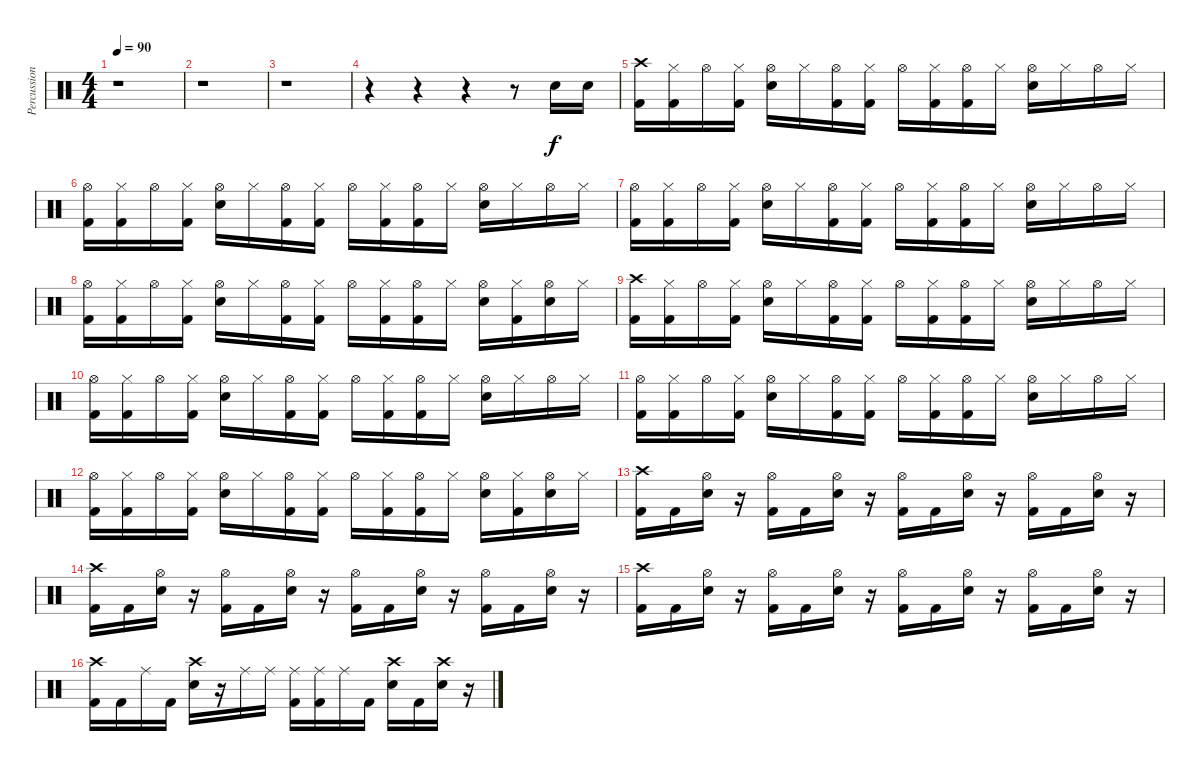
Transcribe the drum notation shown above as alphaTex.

\track ("Percussion" "Percussion") {instrument percussion}
\staff {score}
\articulation defaults
\ts (4 4)
\tempo 90
\clef neutral
\ks c
r.1{dy f} |
r.1 |
r.1 |
r.4 r.4 r.4 r.8 "Snare (hit) 2".16 "Snare (hit) 2".16 |
("Crash high (hit)" "Kick (hit) 2").16 ("Hi-Hat (closed)" "Kick (hit) 2").16 "Hi-Hat (open)".16 ("Hi-Hat (closed)" "Kick (hit) 2").16 ("Hi-Hat (open)" "Snare (hit) 2").16 "Hi-Hat (closed)".16 ("Hi-Hat (open)" "Kick (hit) 2").16 ("Hi-Hat (closed)" "Kick (hit) 2").16 "Hi-Hat (open)".16 ("Hi-Hat (closed)" "Kick (hit) 2").16 ("Hi-Hat (open)" "Kick (hit) 2").16 "Hi-Hat (closed)".16 ("Hi-Hat (open)" "Snare (hit) 2").16 "Hi-Hat (closed)".16 "Hi-Hat (open)".16 "Hi-Hat (closed)".16 |
("Hi-Hat (open)" "Kick (hit) 2").16 ("Hi-Hat (closed)" "Kick (hit) 2").16 "Hi-Hat (open)".16 ("Hi-Hat (closed)" "Kick (hit) 2").16 ("Hi-Hat (open)" "Snare (hit) 2").16 "Hi-Hat (closed)".16 ("Hi-Hat (open)" "Kick (hit) 2").16 ("Hi-Hat (closed)" "Kick (hit) 2").16 "Hi-Hat (open)".16 ("Hi-Hat (closed)" "Kick (hit) 2").16 ("Hi-Hat (open)" "Kick (hit) 2").16 "Hi-Hat (closed)".16 ("Hi-Hat (open)" "Snare (hit) 2").16 "Hi-Hat (closed)".16 "Hi-Hat (open)".16 "Hi-Hat (closed)".16 |
("Hi-Hat (open)" "Kick (hit) 2").16 ("Hi-Hat (closed)" "Kick (hit) 2").16 "Hi-Hat (open)".16 ("Hi-Hat (closed)" "Kick (hit) 2").16 ("Hi-Hat (open)" "Snare (hit) 2").16 "Hi-Hat (closed)".16 ("Hi-Hat (open)" "Kick (hit) 2").16 ("Hi-Hat (closed)" "Kick (hit) 2").16 "Hi-Hat (open)".16 ("Hi-Hat (closed)" "Kick (hit) 2").16 ("Hi-Hat (open)" "Kick (hit) 2").16 "Hi-Hat (closed)".16 ("Hi-Hat (open)" "Snare (hit) 2").16 "Hi-Hat (closed)".16 "Hi-Hat (open)".16 "Hi-Hat (closed)".16 |
("Hi-Hat (open)" "Kick (hit) 2").16 ("Hi-Hat (closed)" "Kick (hit) 2").16 "Hi-Hat (open)".16 ("Hi-Hat (closed)" "Kick (hit) 2").16 ("Hi-Hat (open)" "Snare (hit) 2").16 "Hi-Hat (closed)".16 ("Hi-Hat (open)" "Kick (hit) 2").16 ("Hi-Hat (closed)" "Kick (hit) 2").16 "Hi-Hat (open)".16 ("Hi-Hat (closed)" "Kick (hit) 2").16 ("Hi-Hat (open)" "Kick (hit) 2").16 "Hi-Hat (closed)".16 ("Hi-Hat (open)" "Snare (hit) 2").16 ("Hi-Hat (closed)" "Kick (hit) 2").16 ("Hi-Hat (open)" "Snare (hit) 2").16 "Hi-Hat (closed)".16 |
("Crash high (hit)" "Kick (hit) 2").16 ("Hi-Hat (closed)" "Kick (hit) 2").16 "Hi-Hat (open)".16 ("Hi-Hat (closed)" "Kick (hit) 2").16 ("Hi-Hat (open)" "Snare (hit) 2").16 "Hi-Hat (closed)".16 ("Hi-Hat (open)" "Kick (hit) 2").16 ("Hi-Hat (closed)" "Kick (hit) 2").16 "Hi-Hat (open)".16 ("Hi-Hat (closed)" "Kick (hit) 2").16 ("Hi-Hat (open)" "Kick (hit) 2").16 "Hi-Hat (closed)".16 ("Hi-Hat (open)" "Snare (hit) 2").16 "Hi-Hat (closed)".16 "Hi-Hat (open)".16 "Hi-Hat (closed)".16 |
("Hi-Hat (open)" "Kick (hit) 2").16 ("Hi-Hat (closed)" "Kick (hit) 2").16 "Hi-Hat (open)".16 ("Hi-Hat (closed)" "Kick (hit) 2").16 ("Hi-Hat (open)" "Snare (hit) 2").16 "Hi-Hat (closed)".16 ("Hi-Hat (open)" "Kick (hit) 2").16 ("Hi-Hat (closed)" "Kick (hit) 2").16 "Hi-Hat (open)".16 ("Hi-Hat (closed)" "Kick (hit) 2").16 ("Hi-Hat (open)" "Kick (hit) 2").16 "Hi-Hat (closed)".16 ("Hi-Hat (open)" "Snare (hit) 2").16 "Hi-Hat (closed)".16 "Hi-Hat (open)".16 "Hi-Hat (closed)".16 |
("Hi-Hat (open)" "Kick (hit) 2").16 ("Hi-Hat (closed)" "Kick (hit) 2").16 "Hi-Hat (open)".16 ("Hi-Hat (closed)" "Kick (hit) 2").16 ("Hi-Hat (open)" "Snare (hit) 2").16 "Hi-Hat (closed)".16 ("Hi-Hat (open)" "Kick (hit) 2").16 ("Hi-Hat (closed)" "Kick (hit) 2").16 "Hi-Hat (open)".16 ("Hi-Hat (closed)" "Kick (hit) 2").16 ("Hi-Hat (open)" "Kick (hit) 2").16 "Hi-Hat (closed)".16 ("Hi-Hat (open)" "Snare (hit) 2").16 "Hi-Hat (closed)".16 "Hi-Hat (open)".16 "Hi-Hat (closed)".16 |
("Hi-Hat (open)" "Kick (hit) 2").16 ("Hi-Hat (closed)" "Kick (hit) 2").16 "Hi-Hat (open)".16 ("Hi-Hat (closed)" "Kick (hit) 2").16 ("Hi-Hat (open)" "Snare (hit) 2").16 "Hi-Hat (closed)".16 ("Hi-Hat (open)" "Kick (hit) 2").16 ("Hi-Hat (closed)" "Kick (hit) 2").16 "Hi-Hat (open)".16 ("Hi-Hat (closed)" "Kick (hit) 2").16 ("Hi-Hat (open)" "Kick (hit) 2").16 "Hi-Hat (closed)".16 ("Hi-Hat (open)" "Snare (hit) 2").16 ("Hi-Hat (closed)" "Kick (hit) 2").16 ("Hi-Hat (open)" "Snare (hit) 2").16 "Hi-Hat (closed)".16 |
("Crash high (hit)" "Kick (hit) 2").16 "Kick (hit) 2".16 ("Hi-Hat (open)" "Snare (hit) 2").16 r.16 ("Hi-Hat (open)" "Kick (hit) 2").16 "Kick (hit) 2".16 ("Hi-Hat (open)" "Snare (hit) 2").16 r.16 ("Hi-Hat (open)" "Kick (hit) 2").16 "Kick (hit) 2".16 ("Hi-Hat (open)" "Snare (hit) 2").16 r.16 ("Hi-Hat (open)" "Kick (hit) 2").16 "Kick (hit) 2".16 ("Hi-Hat (open)" "Snare (hit) 2").16 r.16 |
("Crash high (hit)" "Kick (hit) 2").16 "Kick (hit) 2".16 ("Hi-Hat (open)" "Snare (hit) 2").16 r.16 ("Hi-Hat (open)" "Kick (hit) 2").16 "Kick (hit) 2".16 ("Hi-Hat (open)" "Snare (hit) 2").16 r.16 ("Hi-Hat (open)" "Kick (hit) 2").16 "Kick (hit) 2".16 ("Hi-Hat (open)" "Snare (hit) 2").16 r.16 ("Hi-Hat (open)" "Kick (hit) 2").16 "Kick (hit) 2".16 ("Hi-Hat (open)" "Snare (hit) 2").16 r.16 |
("Crash high (hit)" "Kick (hit) 2").16 "Kick (hit) 2".16 ("Hi-Hat (open)" "Snare (hit) 2").16 r.16 ("Hi-Hat (open)" "Kick (hit) 2").16 "Kick (hit) 2".16 ("Hi-Hat (open)" "Snare (hit) 2").16 r.16 ("Hi-Hat (open)" "Kick (hit) 2").16 "Kick (hit) 2".16 ("Hi-Hat (open)" "Snare (hit) 2").16 r.16 ("Hi-Hat (open)" "Kick (hit) 2").16 "Kick (hit) 2".16 ("Hi-Hat (open)" "Snare (hit) 2").16 r.16 |
("Crash high (hit)" "Kick (hit) 2").16 "Kick (hit) 2".16 "Ride (middle)".16 "Kick (hit) 2".16 ("Crash high (hit)" "Snare (hit) 2").16 r.16 "Ride (middle)".16 "Ride (middle)".16 ("Ride (middle)" "Kick (hit) 2").16 ("Ride (middle)" "Kick (hit) 2").16 "Ride (middle)".16 "Kick (hit) 2".16 ("Crash high (hit)" "Snare (hit) 2").16 "Kick (hit) 2".16 ("Crash high (hit)" "Snare (hit) 2").16 r.16
